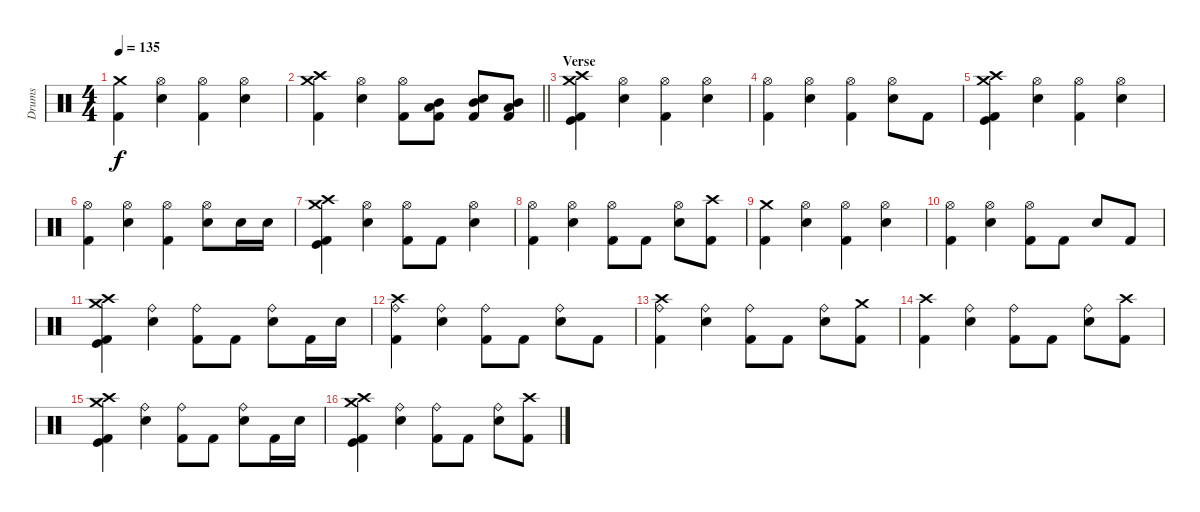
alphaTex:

\track ("Drums" "Drums") {instrument percussion}
\staff {score}
\articulation defaults
\ts (4 4)
\tempo 135
\clef neutral
\ks c
("Crash medium (hit)" "Kick (hit) 2").4{dy f} ("Hi-Hat (open)" "Snare (hit) 2").4 ("Hi-Hat (open)" "Kick (hit) 2").4 ("Hi-Hat (open)" "Snare (hit) 2").4 |
\barLineRight lightlight
("Crash high (hit)" "Crash medium (hit)" "Kick (hit) 2").4 ("Hi-Hat (open)" "Snare (hit) 2").4 ("Hi-Hat (open)" "Kick (hit) 2").8 ("Kick (hit) 2" "Mid Tom (hit)" "Low Tom (hit)").8 ("Kick (hit) 2" "Mid Tom (hit)" "Snare (hit) 2").8 ("Kick (hit) 2" "Mid Tom (hit)" "Low Tom (hit)").8 |
\section ("" "Verse")
("Crash high (hit)" "Crash medium (hit)" "Kick (hit) 2" "Kick (hit)").4 ("Hi-Hat (open)" "Snare (hit) 2").4 ("Hi-Hat (open)" "Kick (hit) 2").4 ("Hi-Hat (open)" "Snare (hit) 2").4 |
("Hi-Hat (open)" "Kick (hit) 2").4 ("Hi-Hat (open)" "Snare (hit) 2").4 ("Hi-Hat (open)" "Kick (hit) 2").4 ("Hi-Hat (open)" "Snare (hit) 2").8 "Kick (hit) 2".8 |
("Crash medium (hit)" "Crash high (hit)" "Kick (hit)" "Kick (hit) 2").4 ("Hi-Hat (open)" "Snare (hit) 2").4 ("Hi-Hat (open)" "Kick (hit) 2").4 ("Hi-Hat (open)" "Snare (hit) 2").4 |
("Hi-Hat (open)" "Kick (hit) 2").4 ("Hi-Hat (open)" "Snare (hit) 2").4 ("Hi-Hat (open)" "Kick (hit) 2").4 ("Hi-Hat (open)" "Snare (hit) 2").8 "Snare (hit) 2".16 "Snare (hit) 2".16 |
("Crash medium (hit)" "Crash high (hit)" "Kick (hit)" "Kick (hit) 2").4 ("Hi-Hat (open)" "Snare (hit) 2").4 ("Hi-Hat (open)" "Kick (hit) 2").8 "Kick (hit) 2".8 ("Hi-Hat (open)" "Snare (hit) 2").4 |
("Hi-Hat (open)" "Kick (hit) 2").4 ("Hi-Hat (open)" "Snare (hit) 2").4 ("Hi-Hat (open)" "Kick (hit) 2").8 "Kick (hit) 2".8 ("Hi-Hat (open)" "Snare (hit) 2").8 ("Crash high (hit)" "Kick (hit) 2").8 |
("Crash medium (hit)" "Kick (hit) 2").4 ("Hi-Hat (open)" "Snare (hit) 2").4 ("Hi-Hat (open)" "Kick (hit) 2").4 ("Hi-Hat (open)" "Snare (hit) 2").4 |
("Hi-Hat (open)" "Kick (hit) 2").4 ("Hi-Hat (open)" "Snare (hit) 2").4 ("Hi-Hat (open)" "Kick (hit) 2").8 "Kick (hit) 2".8 "Snare (hit) 2".8 "Kick (hit) 2".8 |
("Crash high (hit)" "Crash medium (hit)" "Kick (hit) 2" "Kick (hit)").4 ("Ride (bell)" "Snare (hit) 2").4 ("Ride (bell)" "Kick (hit) 2").8 "Kick (hit) 2".8 ("Ride (bell)" "Snare (hit) 2").8 "Kick (hit) 2".16 "Snare (hit) 2".16 |
("Crash high (hit)" "Ride (bell)" "Kick (hit) 2").4 ("Ride (bell)" "Snare (hit) 2").4 ("Ride (bell)" "Kick (hit) 2").8 "Kick (hit) 2".8 ("Ride (bell)" "Snare (hit) 2").8 "Kick (hit) 2".8 |
("Crash high (hit)" "Ride (bell)" "Kick (hit) 2").4 ("Ride (bell)" "Snare (hit) 2").4 ("Ride (bell)" "Kick (hit) 2").8 "Kick (hit) 2".8 ("Ride (bell)" "Snare (hit) 2").8 ("Crash medium (hit)" "Kick (hit) 2").8 |
("Crash high (hit)" "Kick (hit) 2").4 ("Ride (bell)" "Snare (hit) 2").4 ("Ride (bell)" "Kick (hit) 2").8 "Kick (hit) 2".8 ("Ride (bell)" "Snare (hit) 2").8 ("Crash high (hit)" "Kick (hit) 2").8 |
("Crash medium (hit)" "Crash high (hit)" "Kick (hit)" "Kick (hit) 2").4 ("Ride (bell)" "Snare (hit) 2").4 ("Ride (bell)" "Kick (hit) 2").8 "Kick (hit) 2".8 ("Ride (bell)" "Snare (hit) 2").8 "Kick (hit) 2".16 "Snare (hit) 2".16 |
("Crash medium (hit)" "Crash high (hit)" "Kick (hit)" "Kick (hit) 2").4 ("Ride (bell)" "Snare (hit) 2").4 ("Ride (bell)" "Kick (hit) 2").8 "Kick (hit) 2".8 ("Ride (bell)" "Snare (hit) 2").8 ("Crash high (hit)" "Kick (hit) 2").8
